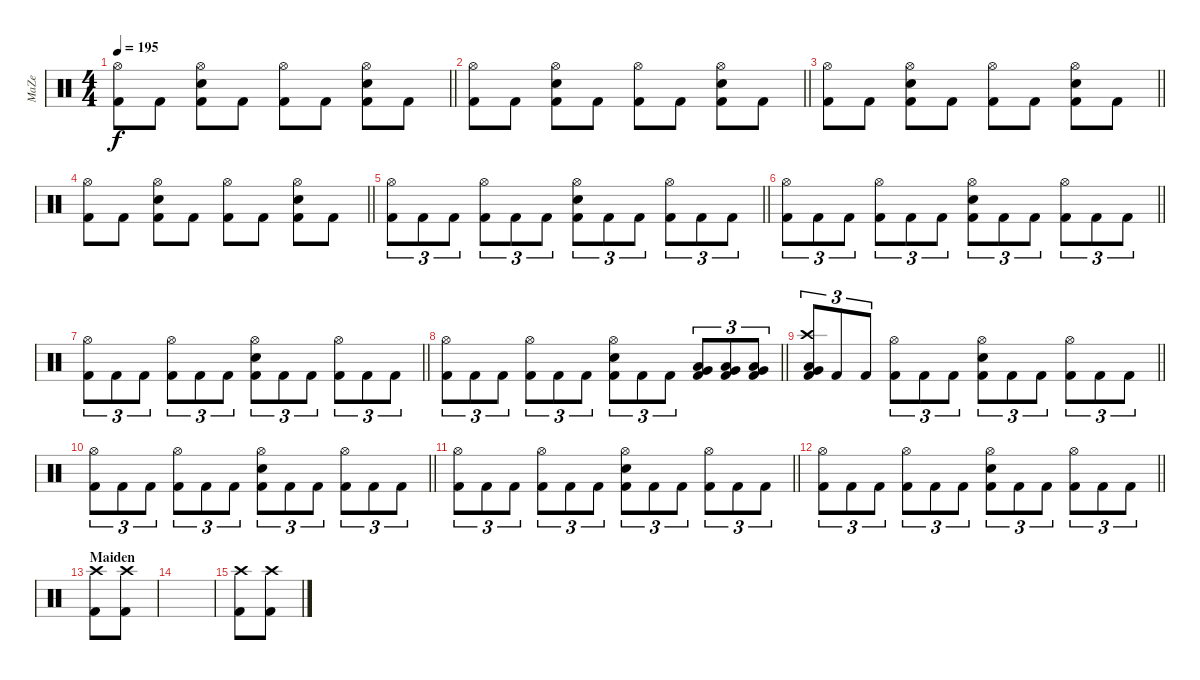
\track ("MaZe" "MaZe") {instrument percussion}
\staff {score}
\articulation defaults
\ts (4 4)
\tempo 195
\clef neutral
\barLineRight lightlight
\ks c
("Hi-Hat (open)" "Kick (hit) 2").8{dy f} "Kick (hit) 2".8 ("Snare (hit) 2" "Hi-Hat (open)" "Kick (hit) 2").8 "Kick (hit) 2".8 ("Hi-Hat (open)" "Kick (hit) 2").8 "Kick (hit) 2".8 ("Snare (hit) 2" "Hi-Hat (open)" "Kick (hit) 2").8 "Kick (hit) 2".8 |
\barLineRight lightlight
("Hi-Hat (open)" "Kick (hit) 2").8 "Kick (hit) 2".8 ("Snare (hit) 2" "Hi-Hat (open)" "Kick (hit) 2").8 "Kick (hit) 2".8 ("Hi-Hat (open)" "Kick (hit) 2").8 "Kick (hit) 2".8 ("Snare (hit) 2" "Hi-Hat (open)" "Kick (hit) 2").8 "Kick (hit) 2".8 |
\barLineRight lightlight
("Hi-Hat (open)" "Kick (hit) 2").8 "Kick (hit) 2".8 ("Snare (hit) 2" "Hi-Hat (open)" "Kick (hit) 2").8 "Kick (hit) 2".8 ("Hi-Hat (open)" "Kick (hit) 2").8 "Kick (hit) 2".8 ("Snare (hit) 2" "Hi-Hat (open)" "Kick (hit) 2").8 "Kick (hit) 2".8 |
\barLineRight lightlight
("Hi-Hat (open)" "Kick (hit) 2").8 "Kick (hit) 2".8 ("Snare (hit) 2" "Hi-Hat (open)" "Kick (hit) 2").8 "Kick (hit) 2".8 ("Hi-Hat (open)" "Kick (hit) 2").8 "Kick (hit) 2".8 ("Snare (hit) 2" "Hi-Hat (open)" "Kick (hit) 2").8 "Kick (hit) 2".8 |
\barLineRight lightlight
("Hi-Hat (open)" "Kick (hit) 2").8{tu (3 2)} "Kick (hit) 2".8{tu (3 2)} "Kick (hit) 2".8{tu (3 2)} ("Hi-Hat (open)" "Kick (hit) 2").8{tu (3 2)} "Kick (hit) 2".8{tu (3 2)} "Kick (hit) 2".8{tu (3 2)} ("Snare (hit) 2" "Hi-Hat (open)" "Kick (hit) 2").8{tu (3 2)} "Kick (hit) 2".8{tu (3 2)} "Kick (hit) 2".8{tu (3 2)} ("Hi-Hat (open)" "Kick (hit) 2").8{tu (3 2)} "Kick (hit) 2".8{tu (3 2)} "Kick (hit) 2".8{tu (3 2)} |
\barLineRight lightlight
("Hi-Hat (open)" "Kick (hit) 2").8{tu (3 2)} "Kick (hit) 2".8{tu (3 2)} "Kick (hit) 2".8{tu (3 2)} ("Hi-Hat (open)" "Kick (hit) 2").8{tu (3 2)} "Kick (hit) 2".8{tu (3 2)} "Kick (hit) 2".8{tu (3 2)} ("Snare (hit) 2" "Hi-Hat (open)" "Kick (hit) 2").8{tu (3 2)} "Kick (hit) 2".8{tu (3 2)} "Kick (hit) 2".8{tu (3 2)} ("Hi-Hat (open)" "Kick (hit) 2").8{tu (3 2)} "Kick (hit) 2".8{tu (3 2)} "Kick (hit) 2".8{tu (3 2)} |
\barLineRight lightlight
("Hi-Hat (open)" "Kick (hit) 2").8{tu (3 2)} "Kick (hit) 2".8{tu (3 2)} "Kick (hit) 2".8{tu (3 2)} ("Hi-Hat (open)" "Kick (hit) 2").8{tu (3 2)} "Kick (hit) 2".8{tu (3 2)} "Kick (hit) 2".8{tu (3 2)} ("Snare (hit) 2" "Hi-Hat (open)" "Kick (hit) 2").8{tu (3 2)} "Kick (hit) 2".8{tu (3 2)} "Kick (hit) 2".8{tu (3 2)} ("Hi-Hat (open)" "Kick (hit) 2").8{tu (3 2)} "Kick (hit) 2".8{tu (3 2)} "Kick (hit) 2".8{tu (3 2)} |
\barLineRight lightlight
("Hi-Hat (open)" "Kick (hit) 2").8{tu (3 2)} "Kick (hit) 2".8{tu (3 2)} "Kick (hit) 2".8{tu (3 2)} ("Hi-Hat (open)" "Kick (hit) 2").8{tu (3 2)} "Kick (hit) 2".8{tu (3 2)} "Kick (hit) 2".8{tu (3 2)} ("Snare (hit) 2" "Hi-Hat (open)" "Kick (hit) 2").8{tu (3 2)} "Kick (hit) 2".8{tu (3 2)} "Kick (hit) 2".8{tu (3 2)} ("Very Low Tom (hit)" "Low Tom (hit)" "Kick (hit) 2").8{tu (3 2)} ("Very Low Tom (hit)" "Low Tom (hit)" "Kick (hit) 2").8{tu (3 2)} ("Very Low Tom (hit)" "Low Tom (hit)" "Kick (hit) 2").8{tu (3 2)} |
\barLineRight lightlight
("Crash high (hit)" "Very Low Tom (hit)" "Low Floor Tom (hit)" "Kick (hit) 2").8{tu (3 2)} "Kick (hit) 2".8{tu (3 2)} "Kick (hit) 2".8{tu (3 2)} ("Hi-Hat (open)" "Kick (hit) 2").8{tu (3 2)} "Kick (hit) 2".8{tu (3 2)} "Kick (hit) 2".8{tu (3 2)} ("Snare (hit) 2" "Hi-Hat (open)" "Kick (hit) 2").8{tu (3 2)} "Kick (hit) 2".8{tu (3 2)} "Kick (hit) 2".8{tu (3 2)} ("Hi-Hat (open)" "Kick (hit) 2").8{tu (3 2)} "Kick (hit) 2".8{tu (3 2)} "Kick (hit) 2".8{tu (3 2)} |
\barLineRight lightlight
("Hi-Hat (open)" "Kick (hit) 2").8{tu (3 2)} "Kick (hit) 2".8{tu (3 2)} "Kick (hit) 2".8{tu (3 2)} ("Hi-Hat (open)" "Kick (hit) 2").8{tu (3 2)} "Kick (hit) 2".8{tu (3 2)} "Kick (hit) 2".8{tu (3 2)} ("Snare (hit) 2" "Hi-Hat (open)" "Kick (hit) 2").8{tu (3 2)} "Kick (hit) 2".8{tu (3 2)} "Kick (hit) 2".8{tu (3 2)} ("Hi-Hat (open)" "Kick (hit) 2").8{tu (3 2)} "Kick (hit) 2".8{tu (3 2)} "Kick (hit) 2".8{tu (3 2)} |
\barLineRight lightlight
("Hi-Hat (open)" "Kick (hit) 2").8{tu (3 2)} "Kick (hit) 2".8{tu (3 2)} "Kick (hit) 2".8{tu (3 2)} ("Hi-Hat (open)" "Kick (hit) 2").8{tu (3 2)} "Kick (hit) 2".8{tu (3 2)} "Kick (hit) 2".8{tu (3 2)} ("Snare (hit) 2" "Hi-Hat (open)" "Kick (hit) 2").8{tu (3 2)} "Kick (hit) 2".8{tu (3 2)} "Kick (hit) 2".8{tu (3 2)} ("Hi-Hat (open)" "Kick (hit) 2").8{tu (3 2)} "Kick (hit) 2".8{tu (3 2)} "Kick (hit) 2".8{tu (3 2)} |
\barLineRight lightlight
("Hi-Hat (open)" "Kick (hit) 2").8{tu (3 2)} "Kick (hit) 2".8{tu (3 2)} "Kick (hit) 2".8{tu (3 2)} ("Hi-Hat (open)" "Kick (hit) 2").8{tu (3 2)} "Kick (hit) 2".8{tu (3 2)} "Kick (hit) 2".8{tu (3 2)} ("Snare (hit) 2" "Hi-Hat (open)" "Kick (hit) 2").8{tu (3 2)} "Kick (hit) 2".8{tu (3 2)} "Kick (hit) 2".8{tu (3 2)} ("Hi-Hat (open)" "Kick (hit) 2").8{tu (3 2)} "Kick (hit) 2".8{tu (3 2)} "Kick (hit) 2".8{tu (3 2)} |
\section ("" "Maiden")
("Crash high (hit)" "Kick (hit) 2").8 ("Crash high (hit)" "Kick (hit) 2").8 |
|
("Crash high (hit)" "Kick (hit) 2").8 ("Crash high (hit)" "Kick (hit) 2").8
